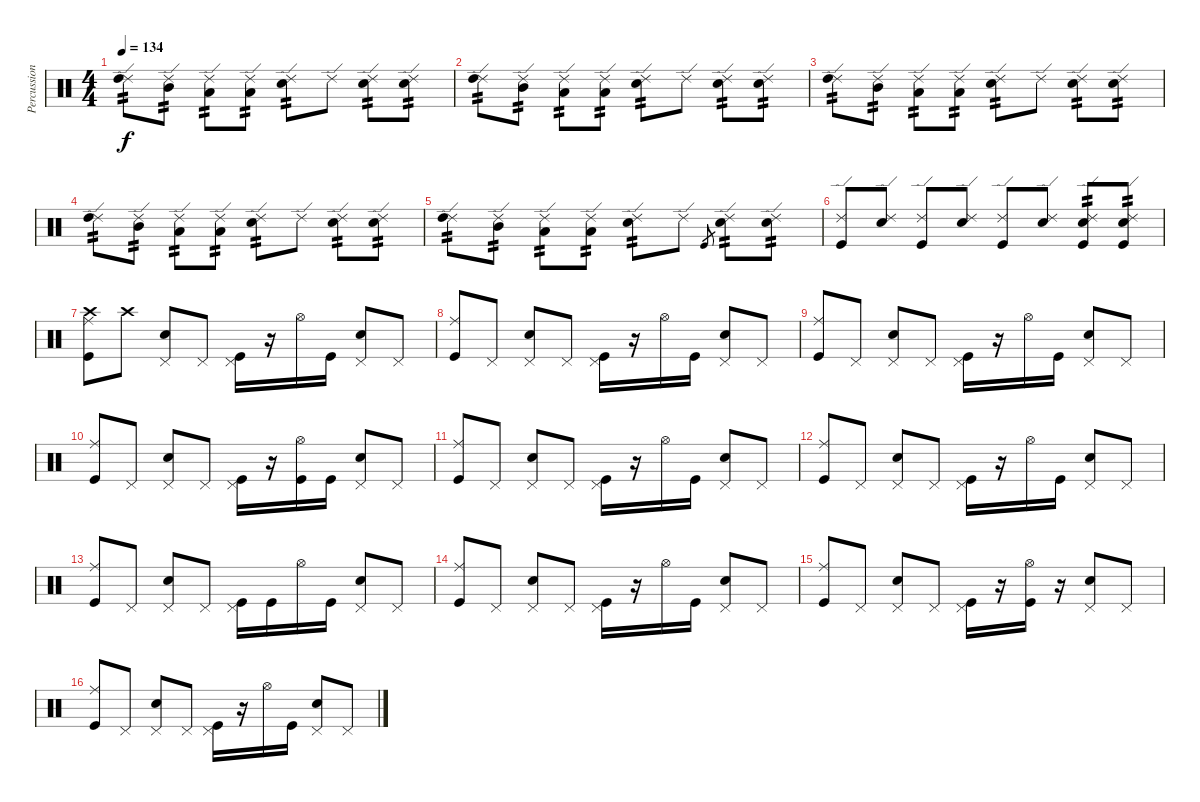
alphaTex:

\track ("Percussion" "Percussion") {instrument percussion}
\staff {score}
\articulation defaults
\ts (4 4)
\tempo 134
\clef neutral
\ks c
("Ride (edge) 2" "High Tom (hit)").8{tp 2 dy f} ("Ride (edge) 2" "Mid Tom (hit)").8{tp 2} ("Ride (edge) 2" "Low Tom (hit)").8{tp 2} ("Ride (edge) 2" "Low Floor Tom (hit)").8{tp 2} ("Ride (edge) 2" "Electric Snare (hit)").8{tp 2} "Ride (edge) 2".8 ("Ride (edge) 2" "Electric Snare (hit)").8{tp 2} ("Ride (edge) 2" "Electric Snare (hit)").8{tp 2} |
("Ride (edge) 2" "High Tom (hit)").8{tp 2} ("Ride (edge) 2" "Mid Tom (hit)").8{tp 2} ("Ride (edge) 2" "Low Tom (hit)").8{tp 2} ("Ride (edge) 2" "Low Floor Tom (hit)").8{tp 2} ("Ride (edge) 2" "Electric Snare (hit)").8{tp 2} "Ride (edge) 2".8 ("Ride (edge) 2" "Electric Snare (hit)").8{tp 2} ("Ride (edge) 2" "Electric Snare (hit)").8{tp 2} |
("Ride (edge) 2" "High Tom (hit)").8{tp 2} ("Ride (edge) 2" "Mid Tom (hit)").8{tp 2} ("Ride (edge) 2" "Low Tom (hit)").8{tp 2} ("Ride (edge) 2" "Low Floor Tom (hit)").8{tp 2} ("Ride (edge) 2" "Electric Snare (hit)").8{tp 2} "Ride (edge) 2".8 ("Ride (edge) 2" "Electric Snare (hit)").8{tp 2} ("Ride (edge) 2" "Electric Snare (hit)").8{tp 2} |
("Ride (edge) 2" "High Tom (hit)").8{tp 2} ("Ride (edge) 2" "Mid Tom (hit)").8{tp 2} ("Ride (edge) 2" "Low Tom (hit)").8{tp 2} ("Ride (edge) 2" "Low Floor Tom (hit)").8{tp 2} ("Ride (edge) 2" "Electric Snare (hit)").8{tp 2} "Ride (edge) 2".8 ("Ride (edge) 2" "Electric Snare (hit)").8{tp 2} ("Ride (edge) 2" "Electric Snare (hit)").8{tp 2} |
("Ride (edge) 2" "High Tom (hit)").8{tp 2} ("Ride (edge) 2" "Mid Tom (hit)").8{tp 2} ("Ride (edge) 2" "Low Tom (hit)").8{tp 2} ("Ride (edge) 2" "Low Floor Tom (hit)").8{tp 2} ("Ride (edge) 2" "Electric Snare (hit)").8{tp 2} "Ride (edge) 2".8 "Kick (hit)".8{gr} ("Ride (edge) 2" "Electric Snare (hit)").8{tp 2} ("Ride (edge) 2" "Electric Snare (hit)").8{tp 2} |
("Kick (hit)" "Ride (edge) 2").8 ("Ride (edge) 2" "Electric Snare (hit)").8 ("Kick (hit)" "Ride (edge) 2").8 ("Ride (edge) 2" "Electric Snare (hit)").8 ("Kick (hit)" "Ride (edge) 2").8 ("Ride (edge) 2" "Electric Snare (hit)").8 ("Kick (hit)" "Ride (edge) 2" "Electric Snare (hit)").8{tp 2} ("Kick (hit)" "Ride (edge) 2" "Electric Snare (hit)").8{tp 2} |
("Crash high (hit)" "Ride (middle)" "Kick (hit)").8 "Crash high (hit)".8 ("Pedal Hi-Hat (hit)" "Electric Snare (hit)").8 "Pedal Hi-Hat (hit)".8 ("Pedal Hi-Hat (hit)" "Kick (hit)").16 r.16 "Hi-Hat (open)".16 "Kick (hit)".16 ("Pedal Hi-Hat (hit)" "Electric Snare (hit)").8 "Pedal Hi-Hat (hit)".8 |
("Ride (middle)" "Kick (hit)").8 "Pedal Hi-Hat (hit)".8 ("Pedal Hi-Hat (hit)" "Electric Snare (hit)").8 "Pedal Hi-Hat (hit)".8 ("Pedal Hi-Hat (hit)" "Kick (hit)").16 r.16 "Hi-Hat (open)".16 "Kick (hit)".16 ("Pedal Hi-Hat (hit)" "Electric Snare (hit)").8 "Pedal Hi-Hat (hit)".8 |
("Ride (middle)" "Kick (hit)").8 "Pedal Hi-Hat (hit)".8 ("Pedal Hi-Hat (hit)" "Electric Snare (hit)").8 "Pedal Hi-Hat (hit)".8 ("Pedal Hi-Hat (hit)" "Kick (hit)").16 r.16 "Hi-Hat (open)".16 "Kick (hit)".16 ("Pedal Hi-Hat (hit)" "Electric Snare (hit)").8 "Pedal Hi-Hat (hit)".8 |
("Ride (middle)" "Kick (hit)").8 "Pedal Hi-Hat (hit)".8 ("Pedal Hi-Hat (hit)" "Electric Snare (hit)").8 "Pedal Hi-Hat (hit)".8 ("Pedal Hi-Hat (hit)" "Kick (hit)").16 r.16 ("Hi-Hat (open)" "Kick (hit)").16 "Kick (hit)".16 ("Pedal Hi-Hat (hit)" "Electric Snare (hit)").8 "Pedal Hi-Hat (hit)".8 |
("Ride (middle)" "Kick (hit)").8 "Pedal Hi-Hat (hit)".8 ("Pedal Hi-Hat (hit)" "Electric Snare (hit)").8 "Pedal Hi-Hat (hit)".8 ("Pedal Hi-Hat (hit)" "Kick (hit)").16 r.16 "Hi-Hat (open)".16 "Kick (hit)".16 ("Pedal Hi-Hat (hit)" "Electric Snare (hit)").8 "Pedal Hi-Hat (hit)".8 |
("Ride (middle)" "Kick (hit)").8 "Pedal Hi-Hat (hit)".8 ("Pedal Hi-Hat (hit)" "Electric Snare (hit)").8 "Pedal Hi-Hat (hit)".8 ("Pedal Hi-Hat (hit)" "Kick (hit)").16 r.16 "Hi-Hat (open)".16 "Kick (hit)".16 ("Pedal Hi-Hat (hit)" "Electric Snare (hit)").8 "Pedal Hi-Hat (hit)".8 |
("Ride (middle)" "Kick (hit)").8 "Pedal Hi-Hat (hit)".8 ("Pedal Hi-Hat (hit)" "Electric Snare (hit)").8 "Pedal Hi-Hat (hit)".8 ("Pedal Hi-Hat (hit)" "Kick (hit)").16 "Kick (hit)".16 "Hi-Hat (open)".16 "Kick (hit)".16 ("Pedal Hi-Hat (hit)" "Electric Snare (hit)").8 "Pedal Hi-Hat (hit)".8 |
("Ride (middle)" "Kick (hit)").8 "Pedal Hi-Hat (hit)".8 ("Pedal Hi-Hat (hit)" "Electric Snare (hit)").8 "Pedal Hi-Hat (hit)".8 ("Pedal Hi-Hat (hit)" "Kick (hit)").16 r.16 "Hi-Hat (open)".16 "Kick (hit)".16 ("Pedal Hi-Hat (hit)" "Electric Snare (hit)").8 "Pedal Hi-Hat (hit)".8 |
("Ride (middle)" "Kick (hit)").8 "Pedal Hi-Hat (hit)".8 ("Pedal Hi-Hat (hit)" "Electric Snare (hit)").8 "Pedal Hi-Hat (hit)".8 ("Pedal Hi-Hat (hit)" "Kick (hit)").16 r.16 ("Hi-Hat (open)" "Kick (hit)").16 r.16 ("Pedal Hi-Hat (hit)" "Electric Snare (hit)").8 "Pedal Hi-Hat (hit)".8 |
("Ride (middle)" "Kick (hit)").8 "Pedal Hi-Hat (hit)".8 ("Pedal Hi-Hat (hit)" "Electric Snare (hit)").8 "Pedal Hi-Hat (hit)".8 ("Pedal Hi-Hat (hit)" "Kick (hit)").16 r.16 "Hi-Hat (open)".16 "Kick (hit)".16 ("Pedal Hi-Hat (hit)" "Electric Snare (hit)").8 "Pedal Hi-Hat (hit)".8
